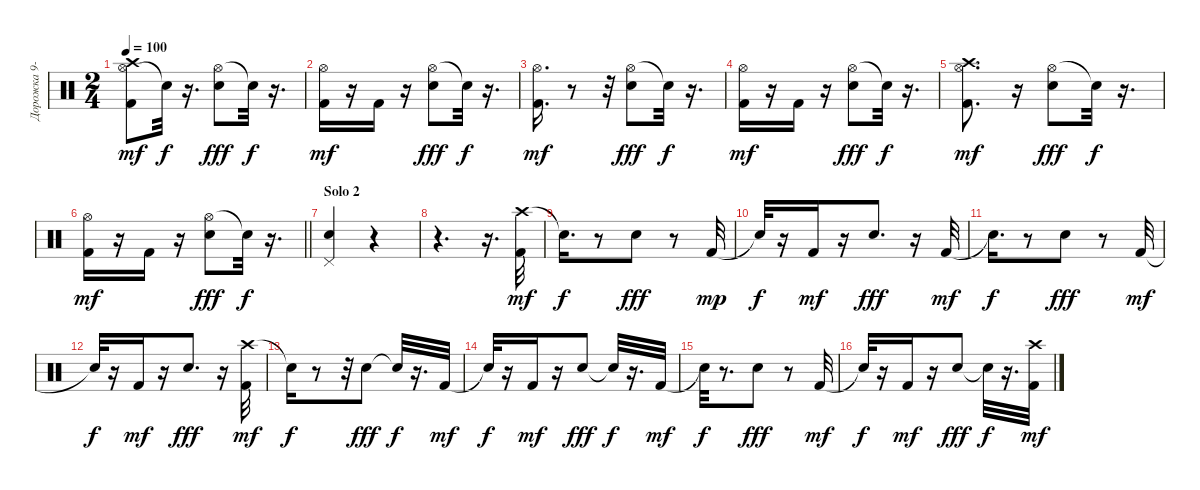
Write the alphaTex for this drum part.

\track ("Дорожка 9-10" "Дорожка 9-") {instrument percussion}
\staff {score}
\articulation defaults
\ts (2 4)
\tempo 100
\clef neutral
\ks c
("Hi-Hat (open)" "Crash high (hit)" "Kick (hit) 2").8{dy mf} "Snare (hit)"{t}.32{dy f} r.16{d} ("Hi-Hat (open)" "Snare (hit) 2").8{dy fff} "Snare (hit)"{t}.32{dy f} r.16{d} |
("Hi-Hat (open)" "Kick (hit) 2").16{dy mf} r.16 "Kick (hit) 2".16 r.16 ("Hi-Hat (open)" "Snare (hit) 2").8{dy fff} "Snare (hit)"{t}.32{dy f} r.16{d} |
("Hi-Hat (open)" "Kick (hit) 2").16{d dy mf} r.8 r.32 ("Hi-Hat (open)" "Snare (hit) 2").8{dy fff} "Snare (hit)"{t}.32{dy f} r.16{d} |
("Hi-Hat (open)" "Kick (hit) 2").16{dy mf} r.16 "Kick (hit) 2".16 r.16 ("Hi-Hat (open)" "Snare (hit) 2").8{dy fff} "Snare (hit)"{t}.32{dy f} r.16{d} |
("Hi-Hat (open)" "Crash high (hit)" "Kick (hit) 2").8{d dy mf} r.16 ("Hi-Hat (open)" "Snare (hit) 2").8{dy fff} "Snare (hit)"{t}.32{dy f} r.16{d} |
\barLineRight lightlight
("Hi-Hat (open)" "Kick (hit) 2").16{dy mf} r.16 "Kick (hit) 2".16 r.16 ("Hi-Hat (open)" "Snare (hit) 2").8{dy fff} "Snare (hit)"{t}.32{dy f} r.16{d} |
\section ("" "Solo 2")
("Pedal Hi-Hat (hit)" "Snare (hit) 2").4 r.4 |
r.4{d} r.16{d} ("Crash high (hit)" "Kick (hit) 2").32{dy mf} |
"Snare (hit)"{t}.16{d dy f} r.8 "Snare (hit) 2".8{dy fff} r.8 "Kick (hit) 2".32{dy mp} |
"Snare (hit)"{t}.32{dy f} r.16 "Kick (hit) 2".16{dy mf} r.16 "Snare (hit) 2".8{d dy fff} r.16 "Kick (hit) 2".32{dy mf} |
"Snare (hit)"{t}.16{d dy f} r.8 "Snare (hit) 2".8{dy fff} r.8 "Kick (hit) 2".32{dy mf} |
"Snare (hit)"{t}.32{dy f} r.16 "Kick (hit) 2".16{dy mf} r.16 "Snare (hit) 2".8{d dy fff} r.16 ("Crash high (hit)" "Kick (hit) 2").32{dy mf} |
"Snare (hit)"{t}.16{dy f} r.8 r.32 "Snare (hit) 2".8{dy fff} "Snare (hit)"{t}.32{dy f} r.16{d} "Kick (hit) 2".32{dy mf} |
"Snare (hit)"{t}.32{dy f} r.16 "Kick (hit) 2".16{dy mf} r.16 "Snare (hit) 2".8{dy fff} "Snare (hit)"{t}.32{dy f} r.16{d} "Kick (hit) 2".32{dy mf} |
"Snare (hit)"{t}.32{dy f} r.8{d} "Snare (hit) 2".8{dy fff} r.8 "Kick (hit) 2".32{dy mf} |
"Snare (hit)"{t}.32{dy f} r.16 "Kick (hit) 2".16{dy mf} r.16 "Snare (hit) 2".8{dy fff} "Snare (hit)"{t}.32{dy f} r.16{d} ("Crash high (hit)" "Kick (hit) 2").32{dy mf}
